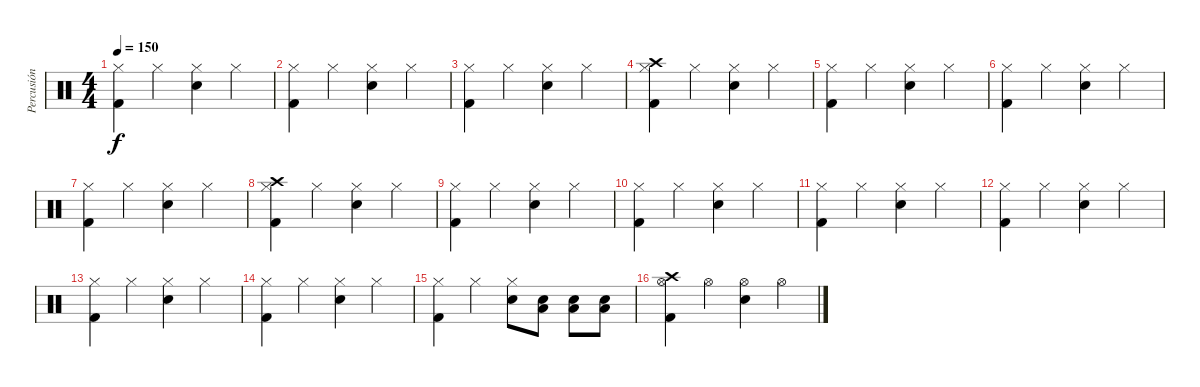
\track ("Percusión" "Percusión") {instrument percussion}
\staff {score}
\articulation defaults
\ts (4 4)
\tempo 150
\clef neutral
\ks c
("Hi-Hat (closed)" "Kick (hit) 2").4{dy f} "Hi-Hat (closed)".4 ("Hi-Hat (closed)" "Snare (hit) 2").4 "Hi-Hat (closed)".4 |
("Hi-Hat (closed)" "Kick (hit) 2").4 "Hi-Hat (closed)".4 ("Hi-Hat (closed)" "Snare (hit) 2").4 "Hi-Hat (closed)".4 |
("Hi-Hat (closed)" "Kick (hit) 2").4 "Hi-Hat (closed)".4 ("Hi-Hat (closed)" "Snare (hit) 2").4 "Hi-Hat (closed)".4 |
("Crash high (hit)" "Hi-Hat (closed)" "Kick (hit) 2").4 "Hi-Hat (closed)".4 ("Hi-Hat (closed)" "Snare (hit) 2").4 "Hi-Hat (closed)".4 |
("Hi-Hat (closed)" "Kick (hit) 2").4 "Hi-Hat (closed)".4 ("Hi-Hat (closed)" "Snare (hit) 2").4 "Hi-Hat (closed)".4 |
("Hi-Hat (closed)" "Kick (hit) 2").4 "Hi-Hat (closed)".4 ("Hi-Hat (closed)" "Snare (hit) 2").4 "Hi-Hat (closed)".4 |
("Hi-Hat (closed)" "Kick (hit) 2").4 "Hi-Hat (closed)".4 ("Hi-Hat (closed)" "Snare (hit) 2").4 "Hi-Hat (closed)".4 |
("Crash high (hit)" "Hi-Hat (closed)" "Kick (hit) 2").4 "Hi-Hat (closed)".4 ("Hi-Hat (closed)" "Snare (hit) 2").4 "Hi-Hat (closed)".4 |
("Hi-Hat (closed)" "Kick (hit) 2").4 "Hi-Hat (closed)".4 ("Hi-Hat (closed)" "Snare (hit) 2").4 "Hi-Hat (closed)".4 |
("Hi-Hat (closed)" "Kick (hit) 2").4 "Hi-Hat (closed)".4 ("Hi-Hat (closed)" "Snare (hit) 2").4 "Hi-Hat (closed)".4 |
("Hi-Hat (closed)" "Kick (hit) 2").4 "Hi-Hat (closed)".4 ("Hi-Hat (closed)" "Snare (hit) 2").4 "Hi-Hat (closed)".4 |
("Hi-Hat (closed)" "Kick (hit) 2").4 "Hi-Hat (closed)".4 ("Hi-Hat (closed)" "Snare (hit) 2").4 "Hi-Hat (closed)".4 |
("Hi-Hat (closed)" "Kick (hit) 2").4 "Hi-Hat (closed)".4 ("Hi-Hat (closed)" "Snare (hit) 2").4 "Hi-Hat (closed)".4 |
("Hi-Hat (closed)" "Kick (hit) 2").4 "Hi-Hat (closed)".4 ("Hi-Hat (closed)" "Snare (hit) 2").4 "Hi-Hat (closed)".4 |
("Hi-Hat (closed)" "Kick (hit) 2").4 "Hi-Hat (closed)".4 ("Hi-Hat (closed)" "Snare (hit) 2").8 ("Snare (hit) 2" "Low Floor Tom (hit)").8 ("Snare (hit) 2" "Low Floor Tom (hit)").8 ("Snare (hit) 2" "Low Floor Tom (hit)").8 |
("Crash high (hit)" "Hi-Hat (open)" "Kick (hit) 2").4 "Hi-Hat (open)".4 ("Hi-Hat (open)" "Snare (hit) 2").4 "Hi-Hat (open)".4
